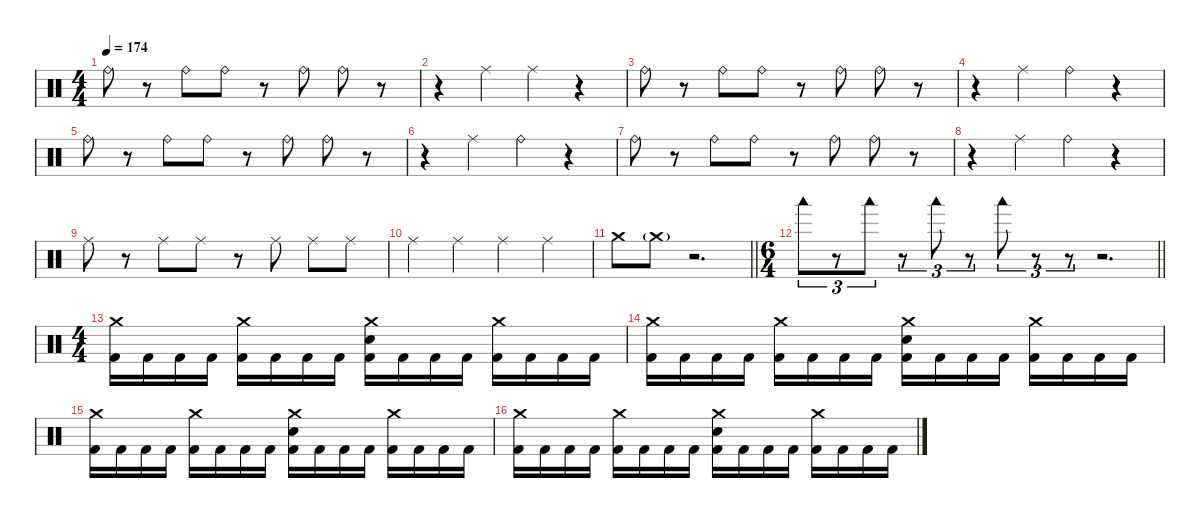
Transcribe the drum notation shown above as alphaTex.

\defaultSystemsLayout 4
\hideDynamics
\bracketExtendMode nobrackets
\singleTrackTrackNamePolicy hidden
\multiTrackTrackNamePolicy hidden
\firstSystemTrackNameMode fullname
\firstSystemTrackNameOrientation horizontal
\otherSystemsTrackNameOrientation horizontal
\track ("Drums" "drm.") {instrument percussion}
\staff {score}
\articulation defaults
\ts (4 4)
\tempo 174
\clef neutral
\ks c "Ride (bell)".8{dy f beam Down}
r.8{beam Down} "Ride (bell)".8{beam Down} "Ride (bell)".8{beam Down} r.8{beam Down} "Ride (bell)".8{beam Down} "Ride (bell)".8{beam Down} r.8{beam Down} |
r.4{beam Down} "Ride (middle)".4{beam Down} "Ride (middle)".4{beam Down} r.4{beam Down} |
"Ride (bell)".8{beam Down} r.8{beam Down} "Ride (bell)".8{beam Down} "Ride (bell)".8{beam Down} r.8{beam Down} "Ride (bell)".8{beam Down} "Ride (bell)".8{beam Down} r.8{beam Down} |
r.4{beam Down} "Ride (middle)".4{beam Down} "Ride (bell)".4{beam Down} r.4{beam Down} |
"Ride (bell)".8{beam Down} r.8{beam Down} "Ride (bell)".8{beam Down} "Ride (bell)".8{beam Down} r.8{beam Down} "Ride (bell)".8{beam Down} "Ride (bell)".8{beam Down} r.8{beam Down} |
r.4{beam Down} "Ride (middle)".4{beam Down} "Ride (bell)".4{beam Down} r.4{beam Down} |
"Ride (bell)".8{beam Down} r.8{beam Down} "Ride (bell)".8{beam Down} "Ride (bell)".8{beam Down} r.8{beam Down} "Ride (bell)".8{beam Down} "Ride (bell)".8{beam Down} r.8{beam Down} |
r.4{beam Down} "Ride (middle)".4{beam Down} "Ride (bell)".4{beam Down} r.4{beam Down} |
"Ride (middle)".8{beam Down} r.8{beam Down} "Ride (middle)".8{beam Down} "Ride (middle)".8{beam Down} r.8{beam Down} "Ride (middle)".8{beam Down} "Ride (middle)".8{beam Down} "Ride (middle)".8{beam Down} |
"Ride (middle)".4{beam Down} "Ride (middle)".4{beam Down} "Ride (middle)".4{beam Down} "Ride (middle)".4{beam Down} |
\barLineRight lightlight "Crash medium (hit)".8{beam Down} "Crash medium (hit)"{g}.8{dy pp beam Down}
r.2{d beam Down} |
\ts (6 4)
\beaming (8 6 6)
\barLineRight lightlight "Woodblock low (hit)".8{tu (3 2) dy f beam Down}
r.8{tu (3 2) beam Down} "Woodblock low (hit)".8{tu (3 2) beam Down} r.8{tu (3 2) beam Down} "Woodblock low (hit)".8{tu (3 2) beam Down} r.8{tu (3 2) beam Down} "Woodblock low (hit)".8{tu (3 2) beam Down} r.8{tu (3 2) beam Down} r.8{tu (3 2) beam Down} r.2{d beam Down} |
\ts (4 4)
\beaming (8 2 2 2 2)
("Crash medium (hit)" "Kick (hit) 2").16{beam Down} "Kick (hit) 2".16{beam Down} "Kick (hit) 2".16{beam Down} "Kick (hit) 2".16{beam Down} ("Crash medium (hit)" "Kick (hit) 2").16{beam Down} "Kick (hit) 2".16{beam Down} "Kick (hit) 2".16{beam Down} "Kick (hit) 2".16{beam Down} ("Crash medium (hit)" "Snare (hit) 2" "Kick (hit) 2").16{beam Down} "Kick (hit) 2".16{beam Down} "Kick (hit) 2".16{beam Down} "Kick (hit) 2".16{beam Down} ("Crash medium (hit)" "Kick (hit) 2").16{beam Down} "Kick (hit) 2".16{beam Down} "Kick (hit) 2".16{beam Down} "Kick (hit) 2".16{beam Down} |
("Crash medium (hit)" "Kick (hit) 2").16{beam Down} "Kick (hit) 2".16{beam Down} "Kick (hit) 2".16{beam Down} "Kick (hit) 2".16{beam Down} ("Crash medium (hit)" "Kick (hit) 2").16{beam Down} "Kick (hit) 2".16{beam Down} "Kick (hit) 2".16{beam Down} "Kick (hit) 2".16{beam Down} ("Crash medium (hit)" "Snare (hit) 2" "Kick (hit) 2").16{beam Down} "Kick (hit) 2".16{beam Down} "Kick (hit) 2".16{beam Down} "Kick (hit) 2".16{beam Down} ("Crash medium (hit)" "Kick (hit) 2").16{beam Down} "Kick (hit) 2".16{beam Down} "Kick (hit) 2".16{beam Down} "Kick (hit) 2".16{beam Down} |
("Crash medium (hit)" "Kick (hit) 2").16{beam Down} "Kick (hit) 2".16{beam Down} "Kick (hit) 2".16{beam Down} "Kick (hit) 2".16{beam Down} ("Crash medium (hit)" "Kick (hit) 2").16{beam Down} "Kick (hit) 2".16{beam Down} "Kick (hit) 2".16{beam Down} "Kick (hit) 2".16{beam Down} ("Crash medium (hit)" "Snare (hit) 2" "Kick (hit) 2").16{beam Down} "Kick (hit) 2".16{beam Down} "Kick (hit) 2".16{beam Down} "Kick (hit) 2".16{beam Down} ("Crash medium (hit)" "Kick (hit) 2").16{beam Down} "Kick (hit) 2".16{beam Down} "Kick (hit) 2".16{beam Down} "Kick (hit) 2".16{beam Down} |
("Crash medium (hit)" "Kick (hit) 2").16{beam Down} "Kick (hit) 2".16{beam Down} "Kick (hit) 2".16{beam Down} "Kick (hit) 2".16{beam Down} ("Crash medium (hit)" "Kick (hit) 2").16{beam Down} "Kick (hit) 2".16{beam Down} "Kick (hit) 2".16{beam Down} "Kick (hit) 2".16{beam Down} ("Crash medium (hit)" "Snare (hit) 2" "Kick (hit) 2").16{beam Down} "Kick (hit) 2".16{beam Down} "Kick (hit) 2".16{beam Down} "Kick (hit) 2".16{beam Down} ("Crash medium (hit)" "Kick (hit) 2").16{beam Down} "Kick (hit) 2".16{beam Down} "Kick (hit) 2".16{beam Down} "Kick (hit) 2".16{beam Down}
